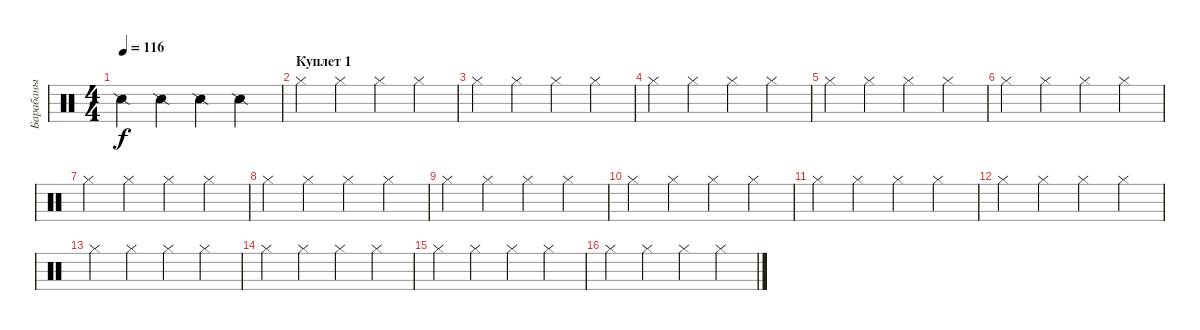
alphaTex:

\track ("Барабаны" "Барабаны") {instrument percussion}
\staff {score}
\articulation defaults
\ts (4 4)
\tempo 116
\clef neutral
\ks c "Snare (side stick) 2".4{dy f} "Snare (side stick) 2".4 "Snare (side stick) 2".4 "Snare (side stick) 2".4
|
\section ("" "Куплет 1")
"Hi-Hat (closed)".4{volume 7} "Hi-Hat (closed)".4 "Hi-Hat (closed)".4 "Hi-Hat (closed)".4 |
"Hi-Hat (closed)".4 "Hi-Hat (closed)".4 "Hi-Hat (closed)".4 "Hi-Hat (closed)".4 |
"Hi-Hat (closed)".4 "Hi-Hat (closed)".4 "Hi-Hat (closed)".4 "Hi-Hat (closed)".4 |
"Hi-Hat (closed)".4 "Hi-Hat (closed)".4 "Hi-Hat (closed)".4 "Hi-Hat (closed)".4 |
"Hi-Hat (closed)".4 "Hi-Hat (closed)".4 "Hi-Hat (closed)".4 "Hi-Hat (closed)".4 |
"Hi-Hat (closed)".4 "Hi-Hat (closed)".4 "Hi-Hat (closed)".4 "Hi-Hat (closed)".4 |
"Hi-Hat (closed)".4 "Hi-Hat (closed)".4 "Hi-Hat (closed)".4 "Hi-Hat (closed)".4 |
"Hi-Hat (closed)".4 "Hi-Hat (closed)".4 "Hi-Hat (closed)".4 "Hi-Hat (closed)".4 |
"Hi-Hat (closed)".4 "Hi-Hat (closed)".4 "Hi-Hat (closed)".4 "Hi-Hat (closed)".4 |
"Hi-Hat (closed)".4 "Hi-Hat (closed)".4 "Hi-Hat (closed)".4 "Hi-Hat (closed)".4 |
"Hi-Hat (closed)".4 "Hi-Hat (closed)".4 "Hi-Hat (closed)".4 "Hi-Hat (closed)".4 |
"Hi-Hat (closed)".4 "Hi-Hat (closed)".4 "Hi-Hat (closed)".4 "Hi-Hat (closed)".4 |
"Hi-Hat (closed)".4 "Hi-Hat (closed)".4 "Hi-Hat (closed)".4 "Hi-Hat (closed)".4 |
"Hi-Hat (closed)".4 "Hi-Hat (closed)".4 "Hi-Hat (closed)".4 "Hi-Hat (closed)".4 |
"Hi-Hat (closed)".4 "Hi-Hat (closed)".4 "Hi-Hat (closed)".4 "Hi-Hat (closed)".4
